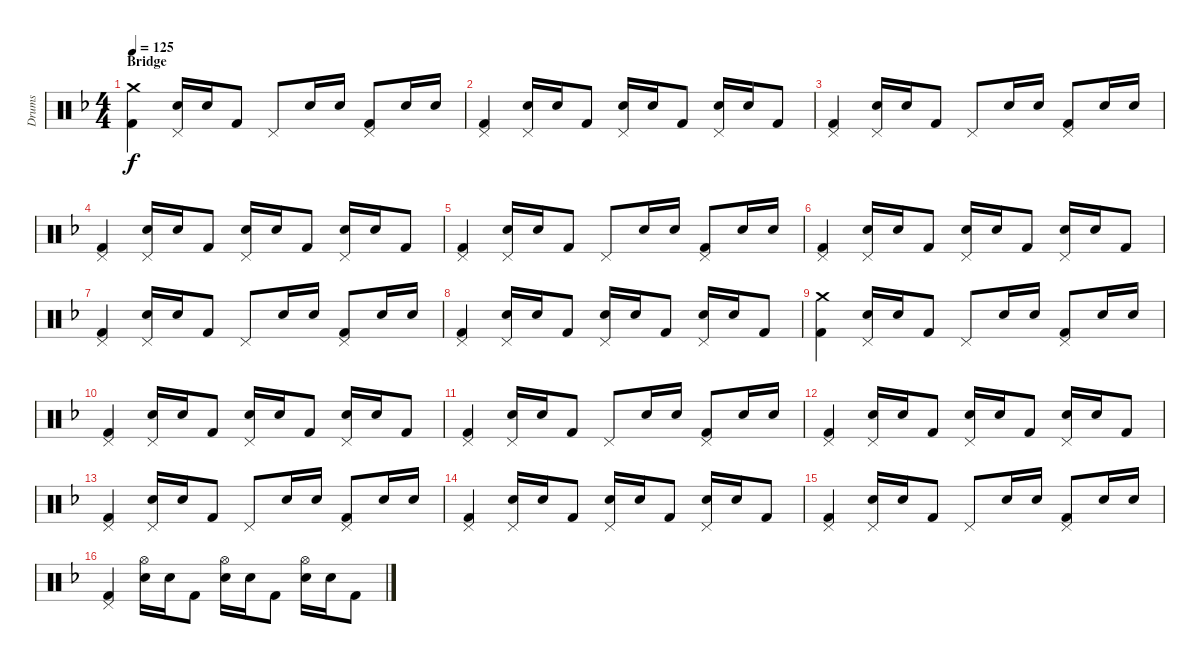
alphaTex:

\track ("Drums" "Drums") {instrument percussion}
\staff {score}
\articulation defaults
\ts (4 4)
\section ("" "Bridge")
\tempo 125
\clef neutral
\ks f
("Crash medium (hit)" "Kick (hit) 2").4{dy f} ("Pedal Hi-Hat (hit)" "Snare (hit) 2").16 "Snare (hit) 2".16 "Kick (hit) 2".8 "Pedal Hi-Hat (hit)".8 "Snare (hit) 2".16 "Snare (hit) 2".16 ("Pedal Hi-Hat (hit)" "Kick (hit) 2").8 "Snare (hit) 2".16 "Snare (hit) 2".16 |
("Pedal Hi-Hat (hit)" "Kick (hit) 2").4 ("Pedal Hi-Hat (hit)" "Snare (hit) 2").16 "Snare (hit) 2".16 "Kick (hit) 2".8 ("Pedal Hi-Hat (hit)" "Snare (hit) 2").16 "Snare (hit) 2".16 "Kick (hit) 2".8 ("Pedal Hi-Hat (hit)" "Snare (hit) 2").16 "Snare (hit) 2".16 "Kick (hit) 2".8 |
("Pedal Hi-Hat (hit)" "Kick (hit) 2").4 ("Pedal Hi-Hat (hit)" "Snare (hit) 2").16 "Snare (hit) 2".16 "Kick (hit) 2".8 "Pedal Hi-Hat (hit)".8 "Snare (hit) 2".16 "Snare (hit) 2".16 ("Pedal Hi-Hat (hit)" "Kick (hit) 2").8 "Snare (hit) 2".16 "Snare (hit) 2".16 |
("Pedal Hi-Hat (hit)" "Kick (hit) 2").4 ("Pedal Hi-Hat (hit)" "Snare (hit) 2").16 "Snare (hit) 2".16 "Kick (hit) 2".8 ("Pedal Hi-Hat (hit)" "Snare (hit) 2").16 "Snare (hit) 2".16 "Kick (hit) 2".8 ("Pedal Hi-Hat (hit)" "Snare (hit) 2").16 "Snare (hit) 2".16 "Kick (hit) 2".8 |
("Pedal Hi-Hat (hit)" "Kick (hit) 2").4 ("Pedal Hi-Hat (hit)" "Snare (hit) 2").16 "Snare (hit) 2".16 "Kick (hit) 2".8 "Pedal Hi-Hat (hit)".8 "Snare (hit) 2".16 "Snare (hit) 2".16 ("Pedal Hi-Hat (hit)" "Kick (hit) 2").8 "Snare (hit) 2".16 "Snare (hit) 2".16 |
("Pedal Hi-Hat (hit)" "Kick (hit) 2").4 ("Pedal Hi-Hat (hit)" "Snare (hit) 2").16 "Snare (hit) 2".16 "Kick (hit) 2".8 ("Pedal Hi-Hat (hit)" "Snare (hit) 2").16 "Snare (hit) 2".16 "Kick (hit) 2".8 ("Pedal Hi-Hat (hit)" "Snare (hit) 2").16 "Snare (hit) 2".16 "Kick (hit) 2".8 |
("Pedal Hi-Hat (hit)" "Kick (hit) 2").4 ("Pedal Hi-Hat (hit)" "Snare (hit) 2").16 "Snare (hit) 2".16 "Kick (hit) 2".8 "Pedal Hi-Hat (hit)".8 "Snare (hit) 2".16 "Snare (hit) 2".16 ("Pedal Hi-Hat (hit)" "Kick (hit) 2").8 "Snare (hit) 2".16 "Snare (hit) 2".16 |
("Pedal Hi-Hat (hit)" "Kick (hit) 2").4 ("Pedal Hi-Hat (hit)" "Snare (hit) 2").16 "Snare (hit) 2".16 "Kick (hit) 2".8 ("Pedal Hi-Hat (hit)" "Snare (hit) 2").16 "Snare (hit) 2".16 "Kick (hit) 2".8 ("Pedal Hi-Hat (hit)" "Snare (hit) 2").16 "Snare (hit) 2".16 "Kick (hit) 2".8 |
("Crash medium (hit)" "Kick (hit) 2").4 ("Pedal Hi-Hat (hit)" "Snare (hit) 2").16 "Snare (hit) 2".16 "Kick (hit) 2".8 "Pedal Hi-Hat (hit)".8 "Snare (hit) 2".16 "Snare (hit) 2".16 ("Pedal Hi-Hat (hit)" "Kick (hit) 2").8 "Snare (hit) 2".16 "Snare (hit) 2".16 |
("Pedal Hi-Hat (hit)" "Kick (hit) 2").4 ("Pedal Hi-Hat (hit)" "Snare (hit) 2").16 "Snare (hit) 2".16 "Kick (hit) 2".8 ("Pedal Hi-Hat (hit)" "Snare (hit) 2").16 "Snare (hit) 2".16 "Kick (hit) 2".8 ("Pedal Hi-Hat (hit)" "Snare (hit) 2").16 "Snare (hit) 2".16 "Kick (hit) 2".8 |
("Pedal Hi-Hat (hit)" "Kick (hit) 2").4 ("Pedal Hi-Hat (hit)" "Snare (hit) 2").16 "Snare (hit) 2".16 "Kick (hit) 2".8 "Pedal Hi-Hat (hit)".8 "Snare (hit) 2".16 "Snare (hit) 2".16 ("Pedal Hi-Hat (hit)" "Kick (hit) 2").8 "Snare (hit) 2".16 "Snare (hit) 2".16 |
("Pedal Hi-Hat (hit)" "Kick (hit) 2").4 ("Pedal Hi-Hat (hit)" "Snare (hit) 2").16 "Snare (hit) 2".16 "Kick (hit) 2".8 ("Pedal Hi-Hat (hit)" "Snare (hit) 2").16 "Snare (hit) 2".16 "Kick (hit) 2".8 ("Pedal Hi-Hat (hit)" "Snare (hit) 2").16 "Snare (hit) 2".16 "Kick (hit) 2".8 |
("Pedal Hi-Hat (hit)" "Kick (hit) 2").4 ("Pedal Hi-Hat (hit)" "Snare (hit) 2").16 "Snare (hit) 2".16 "Kick (hit) 2".8 "Pedal Hi-Hat (hit)".8 "Snare (hit) 2".16 "Snare (hit) 2".16 ("Pedal Hi-Hat (hit)" "Kick (hit) 2").8 "Snare (hit) 2".16 "Snare (hit) 2".16 |
("Pedal Hi-Hat (hit)" "Kick (hit) 2").4 ("Pedal Hi-Hat (hit)" "Snare (hit) 2").16 "Snare (hit) 2".16 "Kick (hit) 2".8 ("Pedal Hi-Hat (hit)" "Snare (hit) 2").16 "Snare (hit) 2".16 "Kick (hit) 2".8 ("Pedal Hi-Hat (hit)" "Snare (hit) 2").16 "Snare (hit) 2".16 "Kick (hit) 2".8 |
("Pedal Hi-Hat (hit)" "Kick (hit) 2").4 ("Pedal Hi-Hat (hit)" "Snare (hit) 2").16 "Snare (hit) 2".16 "Kick (hit) 2".8 "Pedal Hi-Hat (hit)".8 "Snare (hit) 2".16 "Snare (hit) 2".16 ("Pedal Hi-Hat (hit)" "Kick (hit) 2").8 "Snare (hit) 2".16 "Snare (hit) 2".16 |
("Pedal Hi-Hat (hit)" "Kick (hit) 2").4 ("Hi-Hat (open)" "Snare (hit) 2").16 "Snare (hit) 2".16 "Kick (hit) 2".8 ("Hi-Hat (open)" "Snare (hit) 2").16 "Snare (hit) 2".16 "Kick (hit) 2".8 ("Hi-Hat (open)" "Snare (hit) 2").16 "Snare (hit) 2".16 "Kick (hit) 2".8
